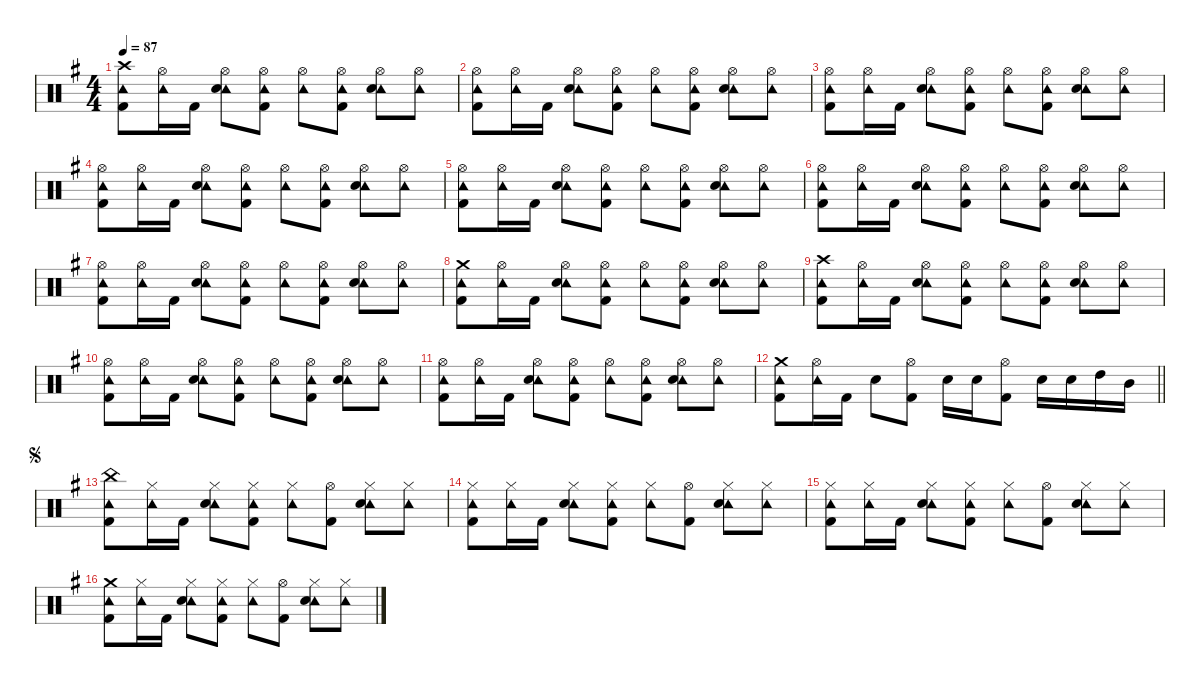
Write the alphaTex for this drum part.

\defaultSystemsLayout 4
\hideDynamics
\bracketExtendMode nobrackets
\singleTrackTrackNamePolicy hidden
\multiTrackTrackNamePolicy hidden
\otherSystemsTrackNameOrientation horizontal
\track ("Drums" "drm.") {defaultSystemsLayout 4 instrument percussion}
\staff {score}
\articulation defaults
\ts (4 4)
\beaming (8 2 2 2 2)
\tempo 87
\clef neutral
\ks eminor
("Tambourine (hit)"{acc forcenatural} "Crash high (hit)"{acc forcenatural} "Kick (hit) 2"{acc forcenatural}).8{dy f beam Down} ("Tambourine (hit)"{acc forcenatural} "Hi-Hat (open)"{acc forcenatural}).16{beam Down} "Kick (hit) 2"{acc forcenatural}.16{beam Down} ("Tambourine (hit)"{acc forcenatural} "Hi-Hat (open)"{acc forcenatural} "Snare (hit) 2"{acc forcenatural}).8{beam Down} ("Tambourine (hit)"{acc forcenatural} "Hi-Hat (open)"{acc forcenatural} "Kick (hit) 2"{acc forcenatural}).8{beam Down} ("Tambourine (hit)"{acc forcenatural} "Hi-Hat (open)"{acc forcenatural}).8{beam Down} ("Tambourine (hit)"{acc forcenatural} "Hi-Hat (open)"{acc forcenatural} "Kick (hit) 2"{acc forcenatural}).8{beam Down} ("Tambourine (hit)"{acc forcenatural} "Hi-Hat (open)"{acc forcenatural} "Snare (hit) 2"{acc forcenatural}).8{beam Down} ("Tambourine (hit)"{acc forcenatural} "Hi-Hat (open)"{acc forcenatural}).8{beam Down} |
("Tambourine (hit)"{acc forcenatural} "Hi-Hat (open)"{acc forcenatural} "Kick (hit) 2"{acc forcenatural}).8{beam Down} ("Tambourine (hit)"{acc forcenatural} "Hi-Hat (open)"{acc forcenatural}).16{beam Down} "Kick (hit) 2"{acc forcenatural}.16{beam Down} ("Tambourine (hit)"{acc forcenatural} "Hi-Hat (open)"{acc forcenatural} "Snare (hit) 2"{acc forcenatural}).8{beam Down} ("Tambourine (hit)"{acc forcenatural} "Hi-Hat (open)"{acc forcenatural} "Kick (hit) 2"{acc forcenatural}).8{beam Down} ("Tambourine (hit)"{acc forcenatural} "Hi-Hat (open)"{acc forcenatural}).8{beam Down} ("Tambourine (hit)"{acc forcenatural} "Hi-Hat (open)"{acc forcenatural} "Kick (hit) 2"{acc forcenatural}).8{beam Down} ("Tambourine (hit)"{acc forcenatural} "Hi-Hat (open)"{acc forcenatural} "Snare (hit) 2"{acc forcenatural}).8{beam Down} ("Tambourine (hit)"{acc forcenatural} "Hi-Hat (open)"{acc forcenatural}).8{beam Down} |
("Tambourine (hit)"{acc forcenatural} "Hi-Hat (open)"{acc forcenatural} "Kick (hit) 2"{acc forcenatural}).8{beam Down} ("Tambourine (hit)"{acc forcenatural} "Hi-Hat (open)"{acc forcenatural}).16{beam Down} "Kick (hit) 2"{acc forcenatural}.16{beam Down} ("Tambourine (hit)"{acc forcenatural} "Hi-Hat (open)"{acc forcenatural} "Snare (hit) 2"{acc forcenatural}).8{beam Down} ("Tambourine (hit)"{acc forcenatural} "Hi-Hat (open)"{acc forcenatural} "Kick (hit) 2"{acc forcenatural}).8{beam Down} ("Tambourine (hit)"{acc forcenatural} "Hi-Hat (open)"{acc forcenatural}).8{beam Down} ("Tambourine (hit)"{acc forcenatural} "Hi-Hat (open)"{acc forcenatural} "Kick (hit) 2"{acc forcenatural}).8{beam Down} ("Tambourine (hit)"{acc forcenatural} "Hi-Hat (open)"{acc forcenatural} "Snare (hit) 2"{acc forcenatural}).8{beam Down} ("Tambourine (hit)"{acc forcenatural} "Hi-Hat (open)"{acc forcenatural}).8{beam Down} |
("Tambourine (hit)"{acc forcenatural} "Hi-Hat (open)"{acc forcenatural} "Kick (hit) 2"{acc forcenatural}).8{beam Down} ("Tambourine (hit)"{acc forcenatural} "Hi-Hat (open)"{acc forcenatural}).16{beam Down} "Kick (hit) 2"{acc forcenatural}.16{beam Down} ("Tambourine (hit)"{acc forcenatural} "Hi-Hat (open)"{acc forcenatural} "Snare (hit) 2"{acc forcenatural}).8{beam Down} ("Tambourine (hit)"{acc forcenatural} "Hi-Hat (open)"{acc forcenatural} "Kick (hit) 2"{acc forcenatural}).8{beam Down} ("Tambourine (hit)"{acc forcenatural} "Hi-Hat (open)"{acc forcenatural}).8{beam Down} ("Tambourine (hit)"{acc forcenatural} "Hi-Hat (open)"{acc forcenatural} "Kick (hit) 2"{acc forcenatural}).8{beam Down} ("Tambourine (hit)"{acc forcenatural} "Hi-Hat (open)"{acc forcenatural} "Snare (hit) 2"{acc forcenatural}).8{beam Down} ("Tambourine (hit)"{acc forcenatural} "Hi-Hat (open)"{acc forcenatural}).8{beam Down} |
("Tambourine (hit)"{acc forcenatural} "Hi-Hat (open)"{acc forcenatural} "Kick (hit) 2"{acc forcenatural}).8{beam Down} ("Tambourine (hit)"{acc forcenatural} "Hi-Hat (open)"{acc forcenatural}).16{beam Down} "Kick (hit) 2"{acc forcenatural}.16{beam Down} ("Tambourine (hit)"{acc forcenatural} "Hi-Hat (open)"{acc forcenatural} "Snare (hit) 2"{acc forcenatural}).8{beam Down} ("Tambourine (hit)"{acc forcenatural} "Hi-Hat (open)"{acc forcenatural} "Kick (hit) 2"{acc forcenatural}).8{beam Down} ("Tambourine (hit)"{acc forcenatural} "Hi-Hat (open)"{acc forcenatural}).8{beam Down} ("Tambourine (hit)"{acc forcenatural} "Hi-Hat (open)"{acc forcenatural} "Kick (hit) 2"{acc forcenatural}).8{beam Down} ("Tambourine (hit)"{acc forcenatural} "Hi-Hat (open)"{acc forcenatural} "Snare (hit) 2"{acc forcenatural}).8{beam Down} ("Tambourine (hit)"{acc forcenatural} "Hi-Hat (open)"{acc forcenatural}).8{beam Down} |
("Tambourine (hit)"{acc forcenatural} "Hi-Hat (open)"{acc forcenatural} "Kick (hit) 2"{acc forcenatural}).8{beam Down} ("Tambourine (hit)"{acc forcenatural} "Hi-Hat (open)"{acc forcenatural}).16{beam Down} "Kick (hit) 2"{acc forcenatural}.16{beam Down} ("Tambourine (hit)"{acc forcenatural} "Hi-Hat (open)"{acc forcenatural} "Snare (hit) 2"{acc forcenatural}).8{beam Down} ("Tambourine (hit)"{acc forcenatural} "Hi-Hat (open)"{acc forcenatural} "Kick (hit) 2"{acc forcenatural}).8{beam Down} ("Tambourine (hit)"{acc forcenatural} "Hi-Hat (open)"{acc forcenatural}).8{beam Down} ("Tambourine (hit)"{acc forcenatural} "Hi-Hat (open)"{acc forcenatural} "Kick (hit) 2"{acc forcenatural}).8{beam Down} ("Tambourine (hit)"{acc forcenatural} "Hi-Hat (open)"{acc forcenatural} "Snare (hit) 2"{acc forcenatural}).8{beam Down} ("Tambourine (hit)"{acc forcenatural} "Hi-Hat (open)"{acc forcenatural}).8{beam Down} |
("Tambourine (hit)"{acc forcenatural} "Hi-Hat (open)"{acc forcenatural} "Kick (hit) 2"{acc forcenatural}).8{beam Down} ("Tambourine (hit)"{acc forcenatural} "Hi-Hat (open)"{acc forcenatural}).16{beam Down} "Kick (hit) 2"{acc forcenatural}.16{beam Down} ("Tambourine (hit)"{acc forcenatural} "Hi-Hat (open)"{acc forcenatural} "Snare (hit) 2"{acc forcenatural}).8{beam Down} ("Tambourine (hit)"{acc forcenatural} "Hi-Hat (open)"{acc forcenatural} "Kick (hit) 2"{acc forcenatural}).8{beam Down} ("Tambourine (hit)"{acc forcenatural} "Hi-Hat (open)"{acc forcenatural}).8{beam Down} ("Tambourine (hit)"{acc forcenatural} "Hi-Hat (open)"{acc forcenatural} "Kick (hit) 2"{acc forcenatural}).8{beam Down} ("Tambourine (hit)"{acc forcenatural} "Hi-Hat (open)"{acc forcenatural} "Snare (hit) 2"{acc forcenatural}).8{beam Down} ("Tambourine (hit)"{acc forcenatural} "Hi-Hat (open)"{acc forcenatural}).8{beam Down} |
("Tambourine (hit)"{acc forcenatural} "Crash medium (hit)"{acc forcenatural} "Kick (hit) 2"{acc forcenatural}).8{beam Down} ("Tambourine (hit)"{acc forcenatural} "Hi-Hat (open)"{acc forcenatural}).16{beam Down} "Kick (hit) 2"{acc forcenatural}.16{beam Down} ("Tambourine (hit)"{acc forcenatural} "Hi-Hat (open)"{acc forcenatural} "Snare (hit) 2"{acc forcenatural}).8{beam Down} ("Tambourine (hit)"{acc forcenatural} "Hi-Hat (open)"{acc forcenatural} "Kick (hit) 2"{acc forcenatural}).8{beam Down} ("Tambourine (hit)"{acc forcenatural} "Hi-Hat (open)"{acc forcenatural}).8{beam Down} ("Tambourine (hit)"{acc forcenatural} "Hi-Hat (open)"{acc forcenatural} "Kick (hit) 2"{acc forcenatural}).8{beam Down} ("Tambourine (hit)"{acc forcenatural} "Hi-Hat (open)"{acc forcenatural} "Snare (hit) 2"{acc forcenatural}).8{beam Down} ("Tambourine (hit)"{acc forcenatural} "Hi-Hat (open)"{acc forcenatural}).8{beam Down} |
("Tambourine (hit)"{acc forcenatural} "Crash high (hit)"{acc forcenatural} "Kick (hit) 2"{acc forcenatural}).8{beam Down} ("Tambourine (hit)"{acc forcenatural} "Hi-Hat (open)"{acc forcenatural}).16{beam Down} "Kick (hit) 2"{acc forcenatural}.16{beam Down} ("Tambourine (hit)"{acc forcenatural} "Hi-Hat (open)"{acc forcenatural} "Snare (hit) 2"{acc forcenatural}).8{beam Down} ("Tambourine (hit)"{acc forcenatural} "Hi-Hat (open)"{acc forcenatural} "Kick (hit) 2"{acc forcenatural}).8{beam Down} ("Tambourine (hit)"{acc forcenatural} "Hi-Hat (open)"{acc forcenatural}).8{beam Down} ("Tambourine (hit)"{acc forcenatural} "Hi-Hat (open)"{acc forcenatural} "Kick (hit) 2"{acc forcenatural}).8{beam Down} ("Tambourine (hit)"{acc forcenatural} "Hi-Hat (open)"{acc forcenatural} "Snare (hit) 2"{acc forcenatural}).8{beam Down} ("Tambourine (hit)"{acc forcenatural} "Hi-Hat (open)"{acc forcenatural}).8{beam Down} |
("Tambourine (hit)"{acc forcenatural} "Hi-Hat (open)"{acc forcenatural} "Kick (hit) 2"{acc forcenatural}).8{beam Down} ("Tambourine (hit)"{acc forcenatural} "Hi-Hat (open)"{acc forcenatural}).16{beam Down} "Kick (hit) 2"{acc forcenatural}.16{beam Down} ("Tambourine (hit)"{acc forcenatural} "Hi-Hat (open)"{acc forcenatural} "Snare (hit) 2"{acc forcenatural}).8{beam Down} ("Tambourine (hit)"{acc forcenatural} "Hi-Hat (open)"{acc forcenatural} "Kick (hit) 2"{acc forcenatural}).8{beam Down} ("Tambourine (hit)"{acc forcenatural} "Hi-Hat (open)"{acc forcenatural}).8{beam Down} ("Tambourine (hit)"{acc forcenatural} "Hi-Hat (open)"{acc forcenatural} "Kick (hit) 2"{acc forcenatural}).8{beam Down} ("Tambourine (hit)"{acc forcenatural} "Hi-Hat (open)"{acc forcenatural} "Snare (hit) 2"{acc forcenatural}).8{beam Down} ("Tambourine (hit)"{acc forcenatural} "Hi-Hat (open)"{acc forcenatural}).8{beam Down} |
("Tambourine (hit)"{acc forcenatural} "Hi-Hat (open)"{acc forcenatural} "Kick (hit) 2"{acc forcenatural}).8{beam Down} ("Tambourine (hit)"{acc forcenatural} "Hi-Hat (open)"{acc forcenatural}).16{beam Down} "Kick (hit) 2"{acc forcenatural}.16{beam Down} ("Tambourine (hit)"{acc forcenatural} "Hi-Hat (open)"{acc forcenatural} "Snare (hit) 2"{acc forcenatural}).8{beam Down} ("Tambourine (hit)"{acc forcenatural} "Hi-Hat (open)"{acc forcenatural} "Kick (hit) 2"{acc forcenatural}).8{beam Down} ("Tambourine (hit)"{acc forcenatural} "Hi-Hat (open)"{acc forcenatural}).8{beam Down} ("Tambourine (hit)"{acc forcenatural} "Hi-Hat (open)"{acc forcenatural} "Kick (hit) 2"{acc forcenatural}).8{beam Down} ("Tambourine (hit)"{acc forcenatural} "Hi-Hat (open)"{acc forcenatural} "Snare (hit) 2"{acc forcenatural}).8{beam Down} ("Tambourine (hit)"{acc forcenatural} "Hi-Hat (open)"{acc forcenatural}).8{beam Down} |
\barLineRight lightlight
("Tambourine (hit)"{acc forcenatural} "Crash medium (hit)"{acc forcenatural} "Kick (hit) 2"{acc forcenatural}).8{beam Down} ("Tambourine (hit)"{acc forcenatural} "Hi-Hat (open)"{acc forcenatural}).16{beam Down} "Kick (hit) 2"{acc forcenatural}.16{beam Down} "Snare (hit) 2"{acc forcenatural}.8{beam Down} ("Hi-Hat (open)"{acc forcenatural} "Kick (hit) 2"{acc forcenatural}).8{beam Down} "Snare (hit) 2"{acc forcenatural}.16{beam Down} "Snare (hit) 2"{acc forcenatural}.16{beam Down} ("Hi-Hat (open)"{acc forcenatural} "Kick (hit) 2"{acc forcenatural}).8{beam Down} "Snare (hit) 2"{acc forcenatural}.16{beam Down} "Snare (hit) 2"{acc forcenatural}.16{beam Down} "High Tom (hit)"{acc forcenatural}.16{beam Down} "Mid Tom (hit)"{acc forcenatural}.16{beam Down} |
\jump segno
("Tambourine (hit)"{acc forcenatural} "China (hit)"{acc forcenatural} "Kick (hit) 2"{acc forcenatural}).8{beam Down} ("Tambourine (hit)"{acc forcenatural} "Hi-Hat (closed)"{acc forcenatural}).16{beam Down} "Kick (hit) 2"{acc forcenatural}.16{beam Down} ("Tambourine (hit)"{acc forcenatural} "Hi-Hat (closed)"{acc forcenatural} "Snare (hit) 2"{acc forcenatural}).8{beam Down} ("Tambourine (hit)"{acc forcenatural} "Hi-Hat (closed)"{acc forcenatural} "Kick (hit) 2"{acc forcenatural}).8{beam Down} ("Tambourine (hit)"{acc forcenatural} "Hi-Hat (closed)"{acc forcenatural}).8{beam Down} ("Hi-Hat (open)"{acc forcenatural} "Kick (hit) 2"{acc forcenatural}).8{beam Down} ("Tambourine (hit)"{acc forcenatural} "Hi-Hat (closed)"{acc forcenatural} "Snare (hit) 2"{acc forcenatural}).8{beam Down} ("Tambourine (hit)"{acc forcenatural} "Hi-Hat (closed)"{acc forcenatural}).8{beam Down} |
("Tambourine (hit)"{acc forcenatural} "Hi-Hat (closed)"{acc forcenatural} "Kick (hit) 2"{acc forcenatural}).8{beam Down} ("Tambourine (hit)"{acc forcenatural} "Hi-Hat (closed)"{acc forcenatural}).16{beam Down} "Kick (hit) 2"{acc forcenatural}.16{beam Down} ("Tambourine (hit)"{acc forcenatural} "Hi-Hat (closed)"{acc forcenatural} "Snare (hit) 2"{acc forcenatural}).8{beam Down} ("Tambourine (hit)"{acc forcenatural} "Hi-Hat (closed)"{acc forcenatural} "Kick (hit) 2"{acc forcenatural}).8{beam Down} ("Tambourine (hit)"{acc forcenatural} "Hi-Hat (closed)"{acc forcenatural}).8{beam Down} ("Hi-Hat (open)"{acc forcenatural} "Kick (hit) 2"{acc forcenatural}).8{beam Down} ("Tambourine (hit)"{acc forcenatural} "Hi-Hat (closed)"{acc forcenatural} "Snare (hit) 2"{acc forcenatural}).8{beam Down} ("Tambourine (hit)"{acc forcenatural} "Hi-Hat (closed)"{acc forcenatural}).8{beam Down} |
("Tambourine (hit)"{acc forcenatural} "Hi-Hat (closed)"{acc forcenatural} "Kick (hit) 2"{acc forcenatural}).8{beam Down} ("Tambourine (hit)"{acc forcenatural} "Hi-Hat (closed)"{acc forcenatural}).16{beam Down} "Kick (hit) 2"{acc forcenatural}.16{beam Down} ("Tambourine (hit)"{acc forcenatural} "Hi-Hat (closed)"{acc forcenatural} "Snare (hit) 2"{acc forcenatural}).8{beam Down} ("Tambourine (hit)"{acc forcenatural} "Hi-Hat (closed)"{acc forcenatural} "Kick (hit) 2"{acc forcenatural}).8{beam Down} ("Tambourine (hit)"{acc forcenatural} "Hi-Hat (closed)"{acc forcenatural}).8{beam Down} ("Hi-Hat (open)"{acc forcenatural} "Kick (hit) 2"{acc forcenatural}).8{beam Down} ("Tambourine (hit)"{acc forcenatural} "Hi-Hat (closed)"{acc forcenatural} "Snare (hit) 2"{acc forcenatural}).8{beam Down} ("Tambourine (hit)"{acc forcenatural} "Hi-Hat (closed)"{acc forcenatural}).8{beam Down} |
("Tambourine (hit)"{acc forcenatural} "Crash medium (hit)"{acc forcenatural} "Kick (hit) 2"{acc forcenatural}).8{beam Down} ("Tambourine (hit)"{acc forcenatural} "Hi-Hat (closed)"{acc forcenatural}).16{beam Down} "Kick (hit) 2"{acc forcenatural}.16{beam Down} ("Tambourine (hit)"{acc forcenatural} "Hi-Hat (closed)"{acc forcenatural} "Snare (hit) 2"{acc forcenatural}).8{beam Down} ("Tambourine (hit)"{acc forcenatural} "Hi-Hat (closed)"{acc forcenatural} "Kick (hit) 2"{acc forcenatural}).8{beam Down} ("Tambourine (hit)"{acc forcenatural} "Hi-Hat (closed)"{acc forcenatural}).8{beam Down} ("Hi-Hat (open)"{acc forcenatural} "Kick (hit) 2"{acc forcenatural}).8{beam Down} ("Tambourine (hit)"{acc forcenatural} "Hi-Hat (closed)"{acc forcenatural} "Snare (hit) 2"{acc forcenatural}).8{beam Down} ("Tambourine (hit)"{acc forcenatural} "Hi-Hat (closed)"{acc forcenatural}).8{beam Down}
